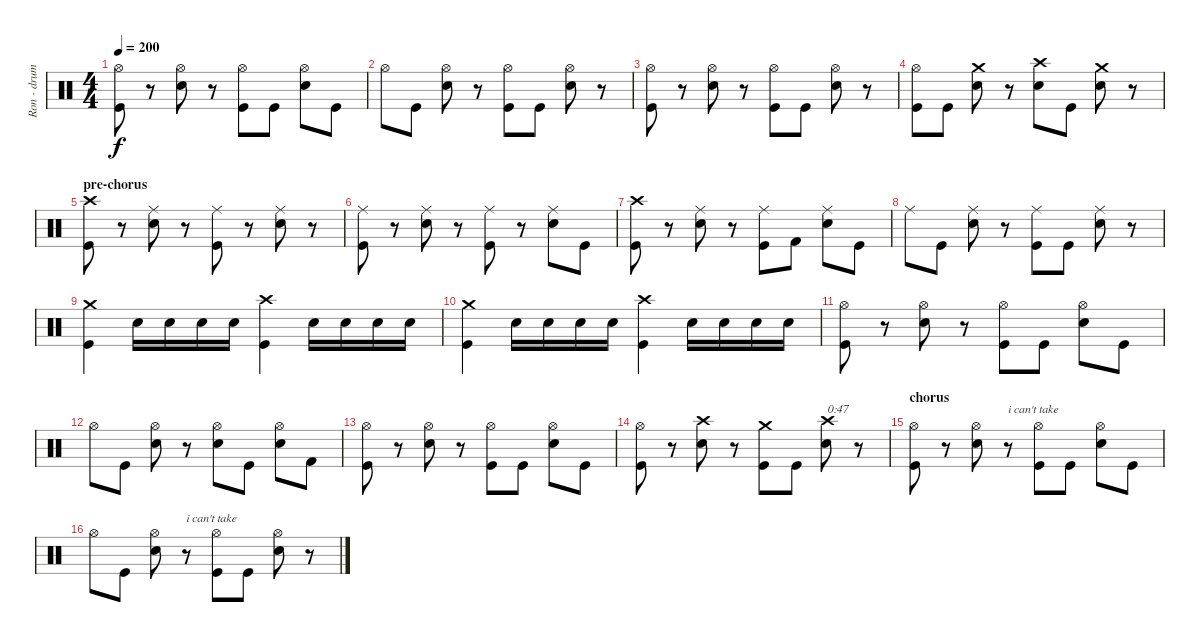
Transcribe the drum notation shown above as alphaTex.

\track ("Ron - drums" "Ron - drum") {instrument percussion}
\staff {score}
\articulation defaults
\ts (4 4)
\tempo 200
\clef neutral
\ks c
("Hi-Hat (open)" "Kick (hit)").8{dy f} r.8 ("Hi-Hat (open)" "Snare (hit) 2").8 r.8 ("Hi-Hat (open)" "Kick (hit)").8 "Kick (hit)".8 ("Hi-Hat (open)" "Snare (hit) 2").8 "Kick (hit)".8 |
"Hi-Hat (open)".8 "Kick (hit)".8 ("Hi-Hat (open)" "Snare (hit) 2").8 r.8 ("Hi-Hat (open)" "Kick (hit)").8 "Kick (hit)".8 ("Hi-Hat (open)" "Snare (hit) 2").8 r.8 |
("Hi-Hat (open)" "Kick (hit)").8 r.8 ("Hi-Hat (open)" "Snare (hit) 2").8 r.8 ("Hi-Hat (open)" "Kick (hit)").8 "Kick (hit)".8 ("Hi-Hat (open)" "Snare (hit) 2").8 r.8 |
("Hi-Hat (open)" "Kick (hit)").8 "Kick (hit)".8 ("Crash medium (hit)" "Snare (hit) 2").8 r.8 ("Crash high (hit)" "Snare (hit) 2").8 "Kick (hit)".8 ("Crash medium (hit)" "Snare (hit) 2").8 r.8 |
\section ("" "pre-chorus")
("Crash high (hit)" "Kick (hit)").8 r.8 ("Ride (middle)" "Snare (hit) 2").8 r.8 ("Ride (middle)" "Kick (hit)").8 r.8 ("Ride (middle)" "Snare (hit) 2").8 r.8 |
("Ride (middle)" "Kick (hit)").8 r.8 ("Ride (middle)" "Snare (hit) 2").8 r.8 ("Ride (middle)" "Kick (hit)").8 r.8 ("Ride (middle)" "Snare (hit) 2").8 "Kick (hit)".8 |
("Crash high (hit)" "Kick (hit)").8 r.8 ("Ride (middle)" "Snare (hit) 2").8 r.8 ("Ride (middle)" "Kick (hit)").8 "Kick (hit) 2".8 ("Ride (middle)" "Snare (hit) 2").8 "Kick (hit)".8 |
"Ride (middle)".8 "Kick (hit)".8 ("Ride (middle)" "Snare (hit) 2").8 r.8 ("Ride (middle)" "Kick (hit)").8 "Kick (hit)".8 ("Ride (middle)" "Snare (hit) 2").8 r.8 |
("Crash medium (hit)" "Kick (hit)").4 "Snare (hit) 2".16 "Snare (hit) 2".16 "Snare (hit) 2".16 "Snare (hit) 2".16 ("Crash high (hit)" "Kick (hit)").4 "Snare (hit) 2".16 "Snare (hit) 2".16 "Snare (hit) 2".16 "Snare (hit) 2".16 |
("Crash medium (hit)" "Kick (hit)").4 "Snare (hit) 2".16 "Snare (hit) 2".16 "Snare (hit) 2".16 "Snare (hit) 2".16 ("Crash high (hit)" "Kick (hit)").4 "Snare (hit) 2".16 "Snare (hit) 2".16 "Snare (hit) 2".16 "Snare (hit) 2".16 |
("Hi-Hat (open)" "Kick (hit)").8 r.8 ("Hi-Hat (open)" "Snare (hit) 2").8 r.8 ("Hi-Hat (open)" "Kick (hit)").8 "Kick (hit)".8 ("Hi-Hat (open)" "Snare (hit) 2").8 "Kick (hit)".8 |
"Hi-Hat (open)".8 "Kick (hit)".8 ("Hi-Hat (open)" "Snare (hit) 2").8 r.8 ("Hi-Hat (open)" "Snare (hit) 2").8 "Kick (hit)".8 ("Hi-Hat (open)" "Snare (hit) 2").8 "Kick (hit) 2".8 |
("Hi-Hat (open)" "Kick (hit)").8 r.8 ("Hi-Hat (open)" "Snare (hit) 2").8 r.8 ("Hi-Hat (open)" "Kick (hit)").8 "Kick (hit)".8 ("Hi-Hat (open)" "Snare (hit) 2").8 "Kick (hit)".8 |
("Hi-Hat (open)" "Kick (hit)").8 r.8 ("Crash high (hit)" "Snare (hit) 2").8 r.8 ("Crash medium (hit)" "Kick (hit)").8 "Kick (hit)".8 ("Crash high (hit)" "Snare (hit) 2").8{txt "0:47"} r.8 |
\section ("" "chorus")
("Hi-Hat (open)" "Kick (hit)").8 r.8 ("Hi-Hat (open)" "Snare (hit) 2").8 r.8{txt "i can't take"} ("Hi-Hat (open)" "Kick (hit)").8 "Kick (hit)".8 ("Hi-Hat (open)" "Snare (hit) 2").8 "Kick (hit)".8 |
"Hi-Hat (open)".8 "Kick (hit)".8 ("Hi-Hat (open)" "Snare (hit) 2").8 r.8{txt "i can't take"} ("Hi-Hat (open)" "Kick (hit)").8 "Kick (hit)".8 ("Hi-Hat (open)" "Snare (hit) 2").8 r.8
